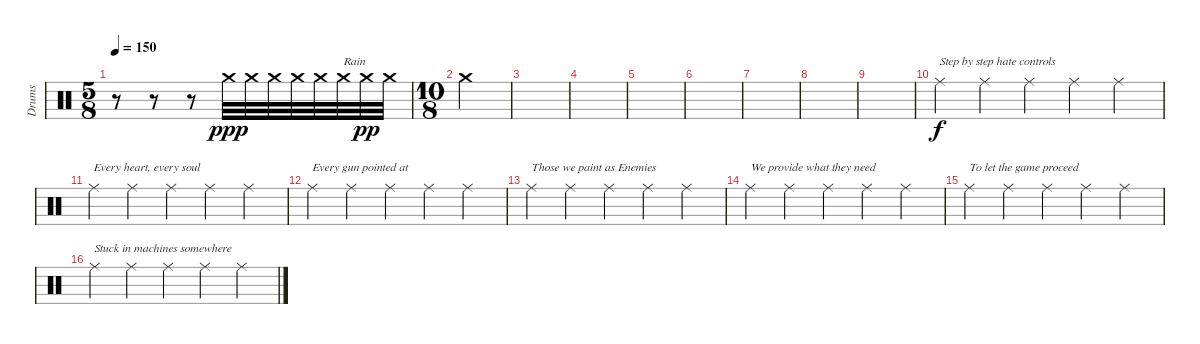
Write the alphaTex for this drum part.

\track ("Drums" "Drums") {instrument percussion}
\staff {score}
\articulation defaults
\ts (5 8)
\tempo 150
\clef neutral
\ks c
r.8{dy pp} r.8 r.8 "Crash medium (hit)".32{dy ppp} "Crash medium (hit)".32 "Crash medium (hit)".32 "Crash medium (hit)".32 "Crash medium (hit)".32 "Crash medium (hit)".32{txt "Rain"} "Crash medium (hit)".32{dy pp} "Crash medium (hit)".32 |
\ts (10 8)
"Crash medium (hit)".4 |
|
|
|
|
|
|
|
"Ride (middle)".4{txt "Step by step hate controls" dy f} "Ride (middle)".4 "Ride (middle)".4 "Ride (middle)".4 "Ride (middle)".4 |
"Ride (middle)".4{txt "Every heart, every soul"} "Ride (middle)".4 "Ride (middle)".4 "Ride (middle)".4 "Ride (middle)".4 |
"Ride (middle)".4{txt "Every gun pointed at"} "Ride (middle)".4 "Ride (middle)".4 "Ride (middle)".4 "Ride (middle)".4 |
"Ride (middle)".4{txt "Those we paint as Enemies"} "Ride (middle)".4 "Ride (middle)".4 "Ride (middle)".4 "Ride (middle)".4 |
"Ride (middle)".4{txt "We provide what they need"} "Ride (middle)".4 "Ride (middle)".4 "Ride (middle)".4 "Ride (middle)".4 |
"Ride (middle)".4{txt "To let the game proceed"} "Ride (middle)".4 "Ride (middle)".4 "Ride (middle)".4 "Ride (middle)".4 |
"Ride (middle)".4{txt "Stuck in machines somewhere"} "Ride (middle)".4 "Ride (middle)".4 "Ride (middle)".4 "Ride (middle)".4
